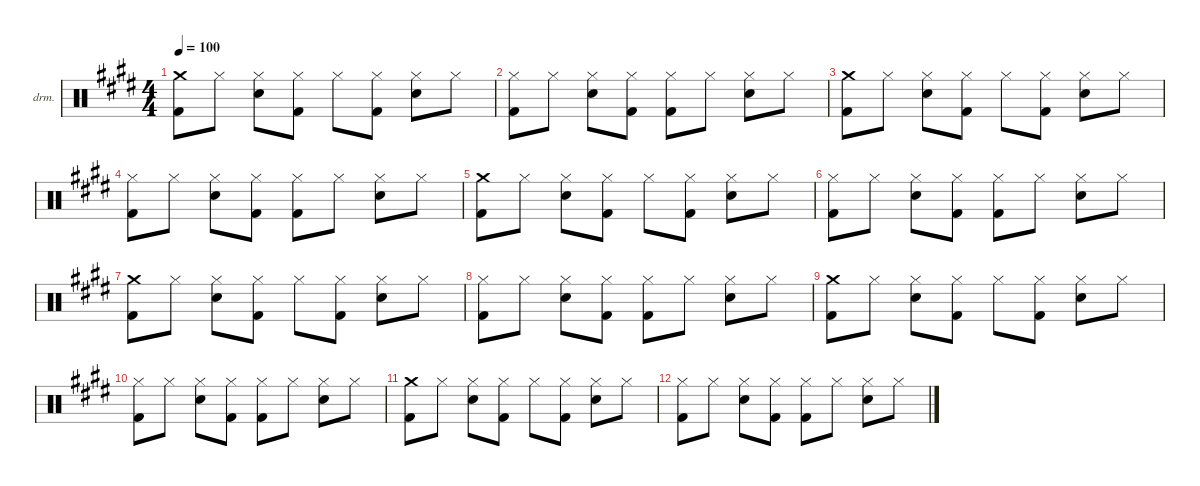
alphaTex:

\defaultSystemsLayout 4
\hideDynamics
\bracketExtendMode nobrackets
\firstSystemTrackNameOrientation horizontal
\otherSystemsTrackNameOrientation horizontal
\track ("Percussion" "drm.") {instrument percussion}
\staff {score}
\articulation defaults
\ts (4 4)
\tempo 100
\clef neutral
\ks c#minor
("Crash medium (hit)"{acc forcenatural} "Kick (hit) 2"{acc forcenatural}).8{dy f} "Hi-Hat (closed)"{acc forcenatural}.8 ("Hi-Hat (closed)"{acc forcenatural} "Snare (hit) 2"{acc forcenatural}).8 ("Hi-Hat (closed)"{acc forcenatural} "Kick (hit) 2"{acc forcenatural}).8 "Hi-Hat (closed)"{acc forcenatural}.8 ("Hi-Hat (closed)"{acc forcenatural} "Kick (hit) 2"{acc forcenatural}).8 ("Hi-Hat (closed)"{acc forcenatural} "Snare (hit) 2"{acc forcenatural}).8 "Hi-Hat (closed)"{acc forcenatural}.8 |
("Hi-Hat (closed)"{acc forcenatural} "Kick (hit) 2"{acc forcenatural}).8 "Hi-Hat (closed)"{acc forcenatural}.8 ("Hi-Hat (closed)"{acc forcenatural} "Snare (hit) 2"{acc forcenatural}).8 ("Hi-Hat (closed)"{acc forcenatural} "Kick (hit) 2"{acc forcenatural}).8 ("Hi-Hat (closed)"{acc forcenatural} "Kick (hit) 2"{acc forcenatural}).8 "Hi-Hat (closed)"{acc forcenatural}.8 ("Hi-Hat (closed)"{acc forcenatural} "Snare (hit) 2"{acc forcenatural}).8 "Hi-Hat (closed)"{acc forcenatural}.8 |
("Crash medium (hit)"{acc forcenatural} "Kick (hit) 2"{acc forcenatural}).8 "Hi-Hat (closed)"{acc forcenatural}.8 ("Hi-Hat (closed)"{acc forcenatural} "Snare (hit) 2"{acc forcenatural}).8 ("Hi-Hat (closed)"{acc forcenatural} "Kick (hit) 2"{acc forcenatural}).8 "Hi-Hat (closed)"{acc forcenatural}.8 ("Hi-Hat (closed)"{acc forcenatural} "Kick (hit) 2"{acc forcenatural}).8 ("Hi-Hat (closed)"{acc forcenatural} "Snare (hit) 2"{acc forcenatural}).8 "Hi-Hat (closed)"{acc forcenatural}.8 |
("Hi-Hat (closed)"{acc forcenatural} "Kick (hit) 2"{acc forcenatural}).8 "Hi-Hat (closed)"{acc forcenatural}.8 ("Hi-Hat (closed)"{acc forcenatural} "Snare (hit) 2"{acc forcenatural}).8 ("Hi-Hat (closed)"{acc forcenatural} "Kick (hit) 2"{acc forcenatural}).8 ("Hi-Hat (closed)"{acc forcenatural} "Kick (hit) 2"{acc forcenatural}).8 "Hi-Hat (closed)"{acc forcenatural}.8 ("Hi-Hat (closed)"{acc forcenatural} "Snare (hit) 2"{acc forcenatural}).8 "Hi-Hat (closed)"{acc forcenatural}.8 |
("Crash medium (hit)"{acc forcenatural} "Kick (hit) 2"{acc forcenatural}).8 "Hi-Hat (closed)"{acc forcenatural}.8 ("Hi-Hat (closed)"{acc forcenatural} "Snare (hit) 2"{acc forcenatural}).8 ("Hi-Hat (closed)"{acc forcenatural} "Kick (hit) 2"{acc forcenatural}).8 "Hi-Hat (closed)"{acc forcenatural}.8 ("Hi-Hat (closed)"{acc forcenatural} "Kick (hit) 2"{acc forcenatural}).8 ("Hi-Hat (closed)"{acc forcenatural} "Snare (hit) 2"{acc forcenatural}).8 "Hi-Hat (closed)"{acc forcenatural}.8 |
("Hi-Hat (closed)"{acc forcenatural} "Kick (hit) 2"{acc forcenatural}).8 "Hi-Hat (closed)"{acc forcenatural}.8 ("Hi-Hat (closed)"{acc forcenatural} "Snare (hit) 2"{acc forcenatural}).8 ("Hi-Hat (closed)"{acc forcenatural} "Kick (hit) 2"{acc forcenatural}).8 ("Hi-Hat (closed)"{acc forcenatural} "Kick (hit) 2"{acc forcenatural}).8 "Hi-Hat (closed)"{acc forcenatural}.8 ("Hi-Hat (closed)"{acc forcenatural} "Snare (hit) 2"{acc forcenatural}).8 "Hi-Hat (closed)"{acc forcenatural}.8 |
("Crash medium (hit)"{acc forcenatural} "Kick (hit) 2"{acc forcenatural}).8 "Hi-Hat (closed)"{acc forcenatural}.8 ("Hi-Hat (closed)"{acc forcenatural} "Snare (hit) 2"{acc forcenatural}).8 ("Hi-Hat (closed)"{acc forcenatural} "Kick (hit) 2"{acc forcenatural}).8 "Hi-Hat (closed)"{acc forcenatural}.8 ("Hi-Hat (closed)"{acc forcenatural} "Kick (hit) 2"{acc forcenatural}).8 ("Hi-Hat (closed)"{acc forcenatural} "Snare (hit) 2"{acc forcenatural}).8 "Hi-Hat (closed)"{acc forcenatural}.8 |
("Hi-Hat (closed)"{acc forcenatural} "Kick (hit) 2"{acc forcenatural}).8 "Hi-Hat (closed)"{acc forcenatural}.8 ("Hi-Hat (closed)"{acc forcenatural} "Snare (hit) 2"{acc forcenatural}).8 ("Hi-Hat (closed)"{acc forcenatural} "Kick (hit) 2"{acc forcenatural}).8 ("Hi-Hat (closed)"{acc forcenatural} "Kick (hit) 2"{acc forcenatural}).8 "Hi-Hat (closed)"{acc forcenatural}.8 ("Hi-Hat (closed)"{acc forcenatural} "Snare (hit) 2"{acc forcenatural}).8 "Hi-Hat (closed)"{acc forcenatural}.8 |
("Crash medium (hit)"{acc forcenatural} "Kick (hit) 2"{acc forcenatural}).8 "Hi-Hat (closed)"{acc forcenatural}.8 ("Hi-Hat (closed)"{acc forcenatural} "Snare (hit) 2"{acc forcenatural}).8 ("Hi-Hat (closed)"{acc forcenatural} "Kick (hit) 2"{acc forcenatural}).8 "Hi-Hat (closed)"{acc forcenatural}.8 ("Hi-Hat (closed)"{acc forcenatural} "Kick (hit) 2"{acc forcenatural}).8 ("Hi-Hat (closed)"{acc forcenatural} "Snare (hit) 2"{acc forcenatural}).8 "Hi-Hat (closed)"{acc forcenatural}.8 |
("Hi-Hat (closed)"{acc forcenatural} "Kick (hit) 2"{acc forcenatural}).8 "Hi-Hat (closed)"{acc forcenatural}.8 ("Hi-Hat (closed)"{acc forcenatural} "Snare (hit) 2"{acc forcenatural}).8 ("Hi-Hat (closed)"{acc forcenatural} "Kick (hit) 2"{acc forcenatural}).8 ("Hi-Hat (closed)"{acc forcenatural} "Kick (hit) 2"{acc forcenatural}).8 "Hi-Hat (closed)"{acc forcenatural}.8 ("Hi-Hat (closed)"{acc forcenatural} "Snare (hit) 2"{acc forcenatural}).8 "Hi-Hat (closed)"{acc forcenatural}.8 |
("Crash medium (hit)"{acc forcenatural} "Kick (hit) 2"{acc forcenatural}).8 "Hi-Hat (closed)"{acc forcenatural}.8 ("Hi-Hat (closed)"{acc forcenatural} "Snare (hit) 2"{acc forcenatural}).8 ("Hi-Hat (closed)"{acc forcenatural} "Kick (hit) 2"{acc forcenatural}).8 "Hi-Hat (closed)"{acc forcenatural}.8 ("Hi-Hat (closed)"{acc forcenatural} "Kick (hit) 2"{acc forcenatural}).8 ("Hi-Hat (closed)"{acc forcenatural} "Snare (hit) 2"{acc forcenatural}).8 "Hi-Hat (closed)"{acc forcenatural}.8 |
("Hi-Hat (closed)"{acc forcenatural} "Kick (hit) 2"{acc forcenatural}).8 "Hi-Hat (closed)"{acc forcenatural}.8 ("Hi-Hat (closed)"{acc forcenatural} "Snare (hit) 2"{acc forcenatural}).8 ("Hi-Hat (closed)"{acc forcenatural} "Kick (hit) 2"{acc forcenatural}).8 ("Hi-Hat (closed)"{acc forcenatural} "Kick (hit) 2"{acc forcenatural}).8 "Hi-Hat (closed)"{acc forcenatural}.8 ("Hi-Hat (closed)"{acc forcenatural} "Snare (hit) 2"{acc forcenatural}).8 "Hi-Hat (closed)"{acc forcenatural}.8
